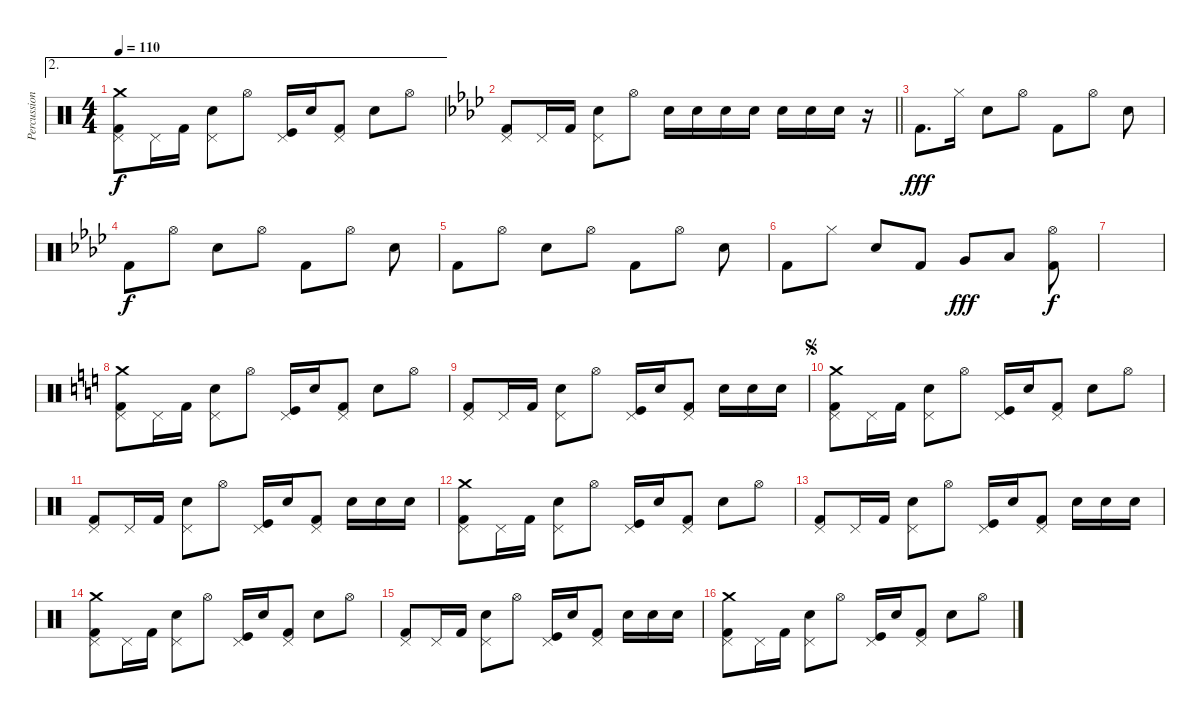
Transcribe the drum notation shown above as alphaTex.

\track ("Percussions" "Percussion") {instrument percussion}
\staff {score}
\articulation defaults
\ae 2
\ts (4 4)
\tempo 110
\clef neutral
\ks c
("Kick (hit) 2" "Pedal Hi-Hat (hit)" "Crash medium (hit)").8{dy f} "Pedal Hi-Hat (hit)".16 "Kick (hit) 2".16 ("Electric Snare (hit)" "Pedal Hi-Hat (hit)").8 "Hi-Hat (open)".8 ("Kick (hit)" "Pedal Hi-Hat (hit)").16 "Electric Snare (hit)".16 ("Kick (hit) 2" "Pedal Hi-Hat (hit)").8 "Electric Snare (hit)".8 "Hi-Hat (open)".8 |
\barLineRight lightlight
\ks ab
("Kick (hit) 2" "Pedal Hi-Hat (hit)").8 "Pedal Hi-Hat (hit)".16 "Kick (hit) 2".16 ("Electric Snare (hit)" "Pedal Hi-Hat (hit)").8 "Hi-Hat (open)".8 "Electric Snare (hit)".16 "Electric Snare (hit)".16 "Electric Snare (hit)".16 "Electric Snare (hit)".16 "Electric Snare (hit)".16 "Electric Snare (hit)".16 "Electric Snare (hit)".16 r.16 |
"Kick (hit) 2".8{d dy fff} "Hi-Hat (closed)".16 "Electric Snare (hit)".8 "Hi-Hat (open)".8 "Kick (hit) 2".8 "Hi-Hat (open)".8 "Electric Snare (hit)".8 |
"Kick (hit) 2".8{dy f} "Hi-Hat (open)".8 "Electric Snare (hit)".8 "Hi-Hat (open)".8 "Kick (hit) 2".8 "Hi-Hat (open)".8 "Electric Snare (hit)".8 |
"Kick (hit) 2".8 "Hi-Hat (open)".8 "Electric Snare (hit)".8 "Hi-Hat (open)".8 "Kick (hit) 2".8 "Hi-Hat (open)".8 "Electric Snare (hit)".8 |
"Kick (hit) 2".8 "Hi-Hat (closed)".8 "Electric Snare (hit)".8 "Kick (hit) 2".8 "Very Low Tom (hit)".8{dy fff} "Low Floor Tom (hit)".8 ("Kick (hit) 2" "Hi-Hat (open)").8{dy f} |
|
\ks c
("Kick (hit) 2" "Pedal Hi-Hat (hit)" "Crash medium (hit)").8 "Pedal Hi-Hat (hit)".16 "Kick (hit) 2".16 ("Electric Snare (hit)" "Pedal Hi-Hat (hit)").8 "Hi-Hat (open)".8 ("Kick (hit)" "Pedal Hi-Hat (hit)").16 "Electric Snare (hit)".16 ("Kick (hit) 2" "Pedal Hi-Hat (hit)").8 "Electric Snare (hit)".8 "Hi-Hat (open)".8 |
("Kick (hit) 2" "Pedal Hi-Hat (hit)").8 "Pedal Hi-Hat (hit)".16 "Kick (hit) 2".16 ("Electric Snare (hit)" "Pedal Hi-Hat (hit)").8 "Hi-Hat (open)".8 ("Kick (hit)" "Pedal Hi-Hat (hit)").16 "Electric Snare (hit)".16 ("Kick (hit) 2" "Pedal Hi-Hat (hit)").8 "Electric Snare (hit)".16 "Electric Snare (hit)".16 "Electric Snare (hit)".16 |
\jump segno
("Kick (hit) 2" "Pedal Hi-Hat (hit)" "Crash medium (hit)").8 "Pedal Hi-Hat (hit)".16 "Kick (hit) 2".16 ("Electric Snare (hit)" "Pedal Hi-Hat (hit)").8 "Hi-Hat (open)".8 ("Kick (hit)" "Pedal Hi-Hat (hit)").16 "Electric Snare (hit)".16 ("Kick (hit) 2" "Pedal Hi-Hat (hit)").8 "Electric Snare (hit)".8 "Hi-Hat (open)".8 |
("Kick (hit) 2" "Pedal Hi-Hat (hit)").8 "Pedal Hi-Hat (hit)".16 "Kick (hit) 2".16 ("Electric Snare (hit)" "Pedal Hi-Hat (hit)").8 "Hi-Hat (open)".8 ("Kick (hit)" "Pedal Hi-Hat (hit)").16 "Electric Snare (hit)".16 ("Kick (hit) 2" "Pedal Hi-Hat (hit)").8 "Electric Snare (hit)".16 "Electric Snare (hit)".16 "Electric Snare (hit)".16 |
("Kick (hit) 2" "Pedal Hi-Hat (hit)" "Crash medium (hit)").8 "Pedal Hi-Hat (hit)".16 "Kick (hit) 2".16 ("Electric Snare (hit)" "Pedal Hi-Hat (hit)").8 "Hi-Hat (open)".8 ("Kick (hit)" "Pedal Hi-Hat (hit)").16 "Electric Snare (hit)".16 ("Kick (hit) 2" "Pedal Hi-Hat (hit)").8 "Electric Snare (hit)".8 "Hi-Hat (open)".8 |
("Kick (hit) 2" "Pedal Hi-Hat (hit)").8 "Pedal Hi-Hat (hit)".16 "Kick (hit) 2".16 ("Electric Snare (hit)" "Pedal Hi-Hat (hit)").8 "Hi-Hat (open)".8 ("Kick (hit)" "Pedal Hi-Hat (hit)").16 "Electric Snare (hit)".16 ("Kick (hit) 2" "Pedal Hi-Hat (hit)").8 "Electric Snare (hit)".16 "Electric Snare (hit)".16 "Electric Snare (hit)".16 |
("Kick (hit) 2" "Pedal Hi-Hat (hit)" "Crash medium (hit)").8 "Pedal Hi-Hat (hit)".16 "Kick (hit) 2".16 ("Electric Snare (hit)" "Pedal Hi-Hat (hit)").8 "Hi-Hat (open)".8 ("Kick (hit)" "Pedal Hi-Hat (hit)").16 "Electric Snare (hit)".16 ("Kick (hit) 2" "Pedal Hi-Hat (hit)").8 "Electric Snare (hit)".8 "Hi-Hat (open)".8 |
("Kick (hit) 2" "Pedal Hi-Hat (hit)").8 "Pedal Hi-Hat (hit)".16 "Kick (hit) 2".16 ("Electric Snare (hit)" "Pedal Hi-Hat (hit)").8 "Hi-Hat (open)".8 ("Kick (hit)" "Pedal Hi-Hat (hit)").16 "Electric Snare (hit)".16 ("Kick (hit) 2" "Pedal Hi-Hat (hit)").8 "Electric Snare (hit)".16 "Electric Snare (hit)".16 "Electric Snare (hit)".16 |
("Kick (hit) 2" "Pedal Hi-Hat (hit)" "Crash medium (hit)").8 "Pedal Hi-Hat (hit)".16 "Kick (hit) 2".16 ("Electric Snare (hit)" "Pedal Hi-Hat (hit)").8 "Hi-Hat (open)".8 ("Kick (hit)" "Pedal Hi-Hat (hit)").16 "Electric Snare (hit)".16 ("Kick (hit) 2" "Pedal Hi-Hat (hit)").8 "Electric Snare (hit)".8 "Hi-Hat (open)".8
